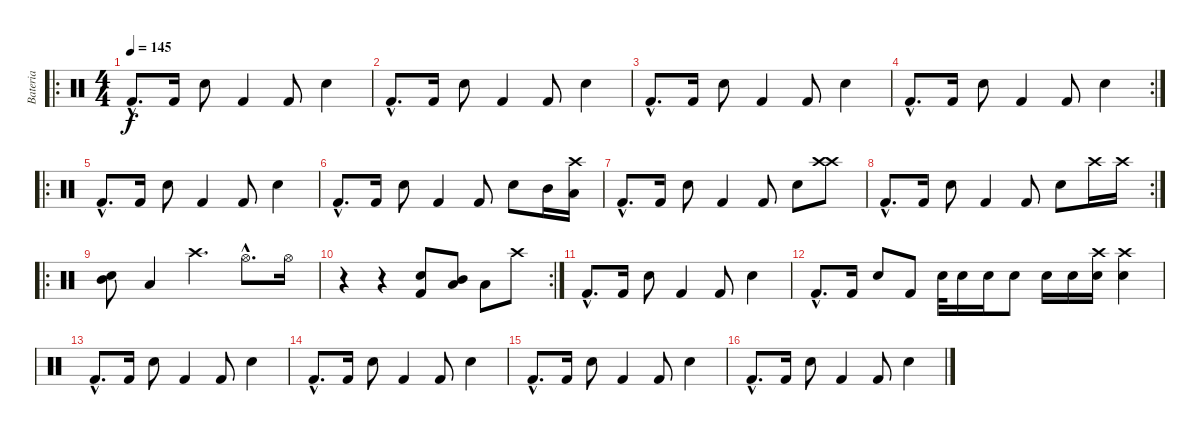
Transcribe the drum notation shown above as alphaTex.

\track (" Bateria" " Bateria") {instrument percussion}
\staff {score}
\articulation defaults
\ro
\ts (4 4)
\tempo 145
\clef neutral
\ks c "Kick (hit) 2"{hac}.8{d dy f} "Kick (hit) 2".16 "Snare (hit) 2".8 "Kick (hit) 2".4 "Kick (hit) 2".8 "Snare (hit) 2".4
|
"Kick (hit) 2"{hac}.8{d} "Kick (hit) 2".16 "Snare (hit) 2".8 "Kick (hit) 2".4 "Kick (hit) 2".8 "Snare (hit) 2".4 |
"Kick (hit) 2"{hac}.8{d} "Kick (hit) 2".16 "Snare (hit) 2".8 "Kick (hit) 2".4 "Kick (hit) 2".8 "Snare (hit) 2".4 |
\rc 2 "Kick (hit) 2"{hac}.8{d} "Kick (hit) 2".16 "Snare (hit) 2".8 "Kick (hit) 2".4 "Kick (hit) 2".8 "Snare (hit) 2".4
|
\ro "Kick (hit) 2"{hac}.8{d} "Kick (hit) 2".16 "Snare (hit) 2".8 "Kick (hit) 2".4 "Kick (hit) 2".8 "Snare (hit) 2".4
|
"Kick (hit) 2"{hac}.8{d} "Kick (hit) 2".16 "Snare (hit) 2".8 "Kick (hit) 2".4 "Kick (hit) 2".8 "Snare (hit) 2".8 "Mid Tom (hit)".16 ("Low Tom (hit)" "Crash high (hit)").16 |
"Kick (hit) 2"{hac}.8{d} "Kick (hit) 2".16 "Snare (hit) 2".8 "Kick (hit) 2".4 "Kick (hit) 2".8 "Snare (hit) 2".8 ("Crash high (hit)" "Crash high (hit)").8 |
\rc 2 "Kick (hit) 2"{hac}.8{d} "Kick (hit) 2".16 "Snare (hit) 2".8 "Kick (hit) 2".4 "Kick (hit) 2".8 "Snare (hit) 2".8 "Crash high (hit)".16 "Crash high (hit)".16
|
\ro
("Mid Tom (hit)" "Snare (hit) 2").8 "Low Tom (hit)".4 "Crash high (hit)".4{d} "Hi-Hat (open)"{hac}.8{d} "Hi-Hat (open)".16 |
\rc 2
r.4 r.4 ("Kick (hit) 2" "Snare (hit) 2").8 ("Low Tom (hit)" "Mid Tom (hit)").8 "Low Tom (hit)".8 "Crash high (hit)".8 |
"Kick (hit) 2"{hac}.8{d} "Kick (hit) 2".16 "Snare (hit) 2".8 "Kick (hit) 2".4 "Kick (hit) 2".8 "Snare (hit) 2".4 |
"Kick (hit) 2"{hac}.8{d} "Kick (hit) 2".16 "Snare (hit) 2".8 "Kick (hit) 2".8 "Snare (hit) 2".32 "Snare (hit) 2".16 "Snare (hit) 2".16 "Snare (hit) 2".8 "Snare (hit) 2".16 "Snare (hit) 2".16 ("Snare (hit) 2" "Crash high (hit)").16 ("Snare (hit) 2" "Crash high (hit)").4 |
"Kick (hit) 2"{hac}.8{d} "Kick (hit) 2".16 "Snare (hit) 2".8 "Kick (hit) 2".4 "Kick (hit) 2".8 "Snare (hit) 2".4 |
"Kick (hit) 2"{hac}.8{d} "Kick (hit) 2".16 "Snare (hit) 2".8 "Kick (hit) 2".4 "Kick (hit) 2".8 "Snare (hit) 2".4 |
"Kick (hit) 2"{hac}.8{d} "Kick (hit) 2".16 "Snare (hit) 2".8 "Kick (hit) 2".4 "Kick (hit) 2".8 "Snare (hit) 2".4 |
"Kick (hit) 2"{hac}.8{d} "Kick (hit) 2".16 "Snare (hit) 2".8 "Kick (hit) 2".4 "Kick (hit) 2".8 "Snare (hit) 2".4
